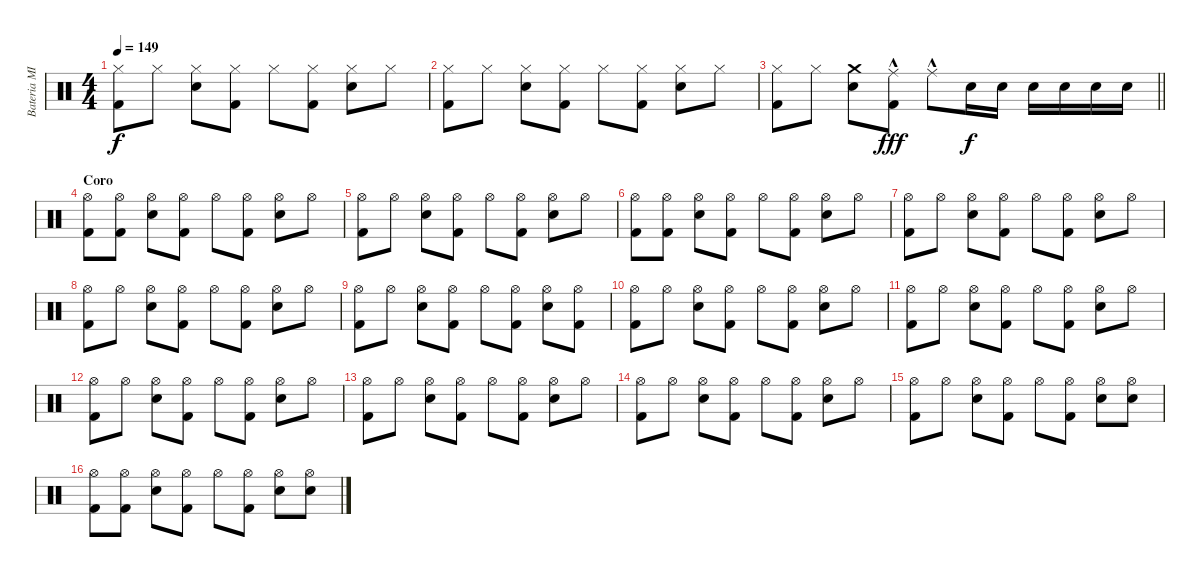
\track ("Bateria MIDI" "Bateria MI") {instrument percussion}
\staff {score}
\articulation defaults
\ts (4 4)
\tempo 149
\clef neutral
\ks c
("Hi-Hat (closed)" "Kick (hit) 2").8{dy f} "Hi-Hat (closed)".8 ("Hi-Hat (closed)" "Snare (hit) 2").8 ("Hi-Hat (closed)" "Kick (hit) 2").8 "Hi-Hat (closed)".8 ("Hi-Hat (closed)" "Kick (hit) 2").8 ("Hi-Hat (closed)" "Snare (hit) 2").8 "Hi-Hat (closed)".8 |
("Hi-Hat (closed)" "Kick (hit) 2").8 "Hi-Hat (closed)".8 ("Hi-Hat (closed)" "Snare (hit) 2").8 ("Hi-Hat (closed)" "Kick (hit) 2").8 "Hi-Hat (closed)".8 ("Hi-Hat (closed)" "Kick (hit) 2").8 ("Hi-Hat (closed)" "Snare (hit) 2").8 "Hi-Hat (closed)".8 |
\barLineRight lightlight
("Hi-Hat (closed)" "Kick (hit) 2").8 "Hi-Hat (closed)".8 ("Crash medium (hit)" "Snare (hit) 2").8 ("Ride (middle)"{hac} "Kick (hit) 2").8{dy fff} "Ride (middle)"{hac}.8 "Snare (hit) 2".16{dy f} "Snare (hit) 2".16 "Snare (hit) 2".16 "Snare (hit) 2".16 "Snare (hit) 2".16 "Snare (hit) 2".16 |
\section ("" "Coro")
("Hi-Hat (open)" "Kick (hit) 2").8 ("Hi-Hat (open)" "Kick (hit) 2").8 ("Hi-Hat (open)" "Snare (hit) 2").8 ("Hi-Hat (open)" "Kick (hit) 2").8 "Hi-Hat (open)".8 ("Hi-Hat (open)" "Kick (hit) 2").8 ("Hi-Hat (open)" "Snare (hit) 2").8 "Hi-Hat (open)".8 |
("Hi-Hat (open)" "Kick (hit) 2").8 "Hi-Hat (open)".8 ("Hi-Hat (open)" "Snare (hit) 2").8 ("Hi-Hat (open)" "Kick (hit) 2").8 "Hi-Hat (open)".8 ("Hi-Hat (open)" "Kick (hit) 2").8 ("Hi-Hat (open)" "Snare (hit) 2").8 "Hi-Hat (open)".8 |
("Hi-Hat (open)" "Kick (hit) 2").8 ("Hi-Hat (open)" "Kick (hit) 2").8 ("Hi-Hat (open)" "Snare (hit) 2").8 ("Hi-Hat (open)" "Kick (hit) 2").8 "Hi-Hat (open)".8 ("Hi-Hat (open)" "Kick (hit) 2").8 ("Hi-Hat (open)" "Snare (hit) 2").8 "Hi-Hat (open)".8 |
("Hi-Hat (open)" "Kick (hit) 2").8 "Hi-Hat (open)".8 ("Hi-Hat (open)" "Snare (hit) 2").8 ("Hi-Hat (open)" "Kick (hit) 2").8 "Hi-Hat (open)".8 ("Hi-Hat (open)" "Kick (hit) 2").8 ("Hi-Hat (open)" "Snare (hit) 2").8 "Hi-Hat (open)".8 |
("Hi-Hat (open)" "Kick (hit) 2").8 "Hi-Hat (open)".8 ("Hi-Hat (open)" "Snare (hit) 2").8 ("Hi-Hat (open)" "Kick (hit) 2").8 "Hi-Hat (open)".8 ("Hi-Hat (open)" "Kick (hit) 2").8 ("Hi-Hat (open)" "Snare (hit) 2").8 "Hi-Hat (open)".8 |
("Hi-Hat (open)" "Kick (hit) 2").8 "Hi-Hat (open)".8 ("Hi-Hat (open)" "Snare (hit) 2").8 ("Hi-Hat (open)" "Kick (hit) 2").8 "Hi-Hat (open)".8 ("Hi-Hat (open)" "Kick (hit) 2").8 ("Hi-Hat (open)" "Snare (hit) 2").8 ("Hi-Hat (open)" "Kick (hit) 2").8 |
("Hi-Hat (open)" "Kick (hit) 2").8 "Hi-Hat (open)".8 ("Hi-Hat (open)" "Snare (hit) 2").8 ("Hi-Hat (open)" "Kick (hit) 2").8 "Hi-Hat (open)".8 ("Hi-Hat (open)" "Kick (hit) 2").8 ("Hi-Hat (open)" "Snare (hit) 2").8 "Hi-Hat (open)".8 |
("Hi-Hat (open)" "Kick (hit) 2").8 "Hi-Hat (open)".8 ("Hi-Hat (open)" "Snare (hit) 2").8 ("Hi-Hat (open)" "Kick (hit) 2").8 "Hi-Hat (open)".8 ("Hi-Hat (open)" "Kick (hit) 2").8 ("Hi-Hat (open)" "Snare (hit) 2").8 "Hi-Hat (open)".8 |
("Hi-Hat (open)" "Kick (hit) 2").8 "Hi-Hat (open)".8 ("Hi-Hat (open)" "Snare (hit) 2").8 ("Hi-Hat (open)" "Kick (hit) 2").8 "Hi-Hat (open)".8 ("Hi-Hat (open)" "Kick (hit) 2").8 ("Hi-Hat (open)" "Snare (hit) 2").8 "Hi-Hat (open)".8 |
("Hi-Hat (open)" "Kick (hit) 2").8 "Hi-Hat (open)".8 ("Hi-Hat (open)" "Snare (hit) 2").8 ("Hi-Hat (open)" "Kick (hit) 2").8 "Hi-Hat (open)".8 ("Hi-Hat (open)" "Kick (hit) 2").8 ("Hi-Hat (open)" "Snare (hit) 2").8 "Hi-Hat (open)".8 |
("Hi-Hat (open)" "Kick (hit) 2").8 "Hi-Hat (open)".8 ("Hi-Hat (open)" "Snare (hit) 2").8 ("Hi-Hat (open)" "Kick (hit) 2").8 "Hi-Hat (open)".8 ("Hi-Hat (open)" "Kick (hit) 2").8 ("Hi-Hat (open)" "Snare (hit) 2").8 "Hi-Hat (open)".8 |
("Hi-Hat (open)" "Kick (hit) 2").8 "Hi-Hat (open)".8 ("Hi-Hat (open)" "Snare (hit) 2").8 ("Hi-Hat (open)" "Kick (hit) 2").8 "Hi-Hat (open)".8 ("Hi-Hat (open)" "Kick (hit) 2").8 ("Hi-Hat (open)" "Snare (hit) 2").8 ("Hi-Hat (open)" "Snare (hit) 2").8 |
("Hi-Hat (open)" "Kick (hit) 2").8 ("Hi-Hat (open)" "Kick (hit) 2").8 ("Hi-Hat (open)" "Snare (hit) 2").8 ("Hi-Hat (open)" "Kick (hit) 2").8 "Hi-Hat (open)".8 ("Hi-Hat (open)" "Kick (hit) 2").8 ("Hi-Hat (open)" "Snare (hit) 2").8 ("Hi-Hat (open)" "Snare (hit) 2").8
